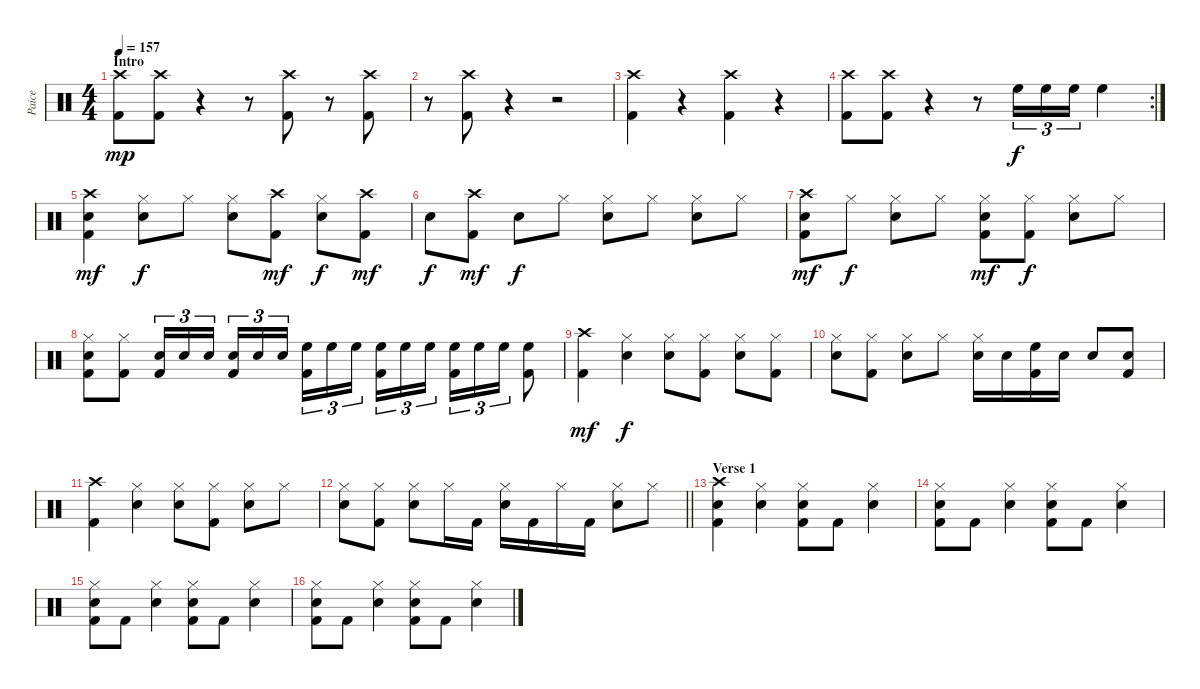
\track ("Paice" "Paice") {instrument percussion}
\staff {score}
\articulation defaults
\ts (4 4)
\section ("" "Intro")
\tempo 157
\clef neutral
\ks c
("Crash high (hit)" "Kick (hit) 2").8{dy mp} ("Crash high (hit)" "Kick (hit) 2").8 r.4 r.8 ("Crash high (hit)" "Kick (hit) 2").8 r.8 ("Crash high (hit)" "Kick (hit) 2").8 |
r.8 ("Crash high (hit)" "Kick (hit) 2").8 r.4 r.2 |
("Crash high (hit)" "Kick (hit) 2").4 r.4 ("Crash high (hit)" "Kick (hit) 2").4 r.4 |
\rc 2
("Crash high (hit)" "Kick (hit) 2").8 ("Crash high (hit)" "Kick (hit) 2").8 r.4 r.8 "High Floor Tom (hit)".16{tu (3 2) dy f} "High Floor Tom (hit)".16{tu (3 2)} "High Floor Tom (hit)".16{tu (3 2)} "High Floor Tom (hit)".4 |
("Crash high (hit)" "Snare (hit) 2" "Kick (hit) 2").4{dy mf} ("Hi-Hat (closed)" "Snare (hit) 2").8{dy f} "Hi-Hat (closed)".8 ("Hi-Hat (closed)" "Snare (hit) 2").8 ("Crash high (hit)" "Kick (hit) 2").8{dy mf} ("Hi-Hat (closed)" "Snare (hit) 2").8{dy f} ("Crash high (hit)" "Kick (hit) 2").8{dy mf} |
"Snare (hit) 2".8{dy f} ("Crash high (hit)" "Kick (hit) 2").8{dy mf} "Snare (hit) 2".8{dy f} "Hi-Hat (closed)".8 ("Hi-Hat (closed)" "Snare (hit) 2").8 "Hi-Hat (closed)".8 ("Hi-Hat (closed)" "Snare (hit) 2").8 "Hi-Hat (closed)".8 |
("Crash high (hit)" "Snare (hit) 2" "Kick (hit) 2").8{dy mf} "Hi-Hat (closed)".8{dy f} ("Hi-Hat (closed)" "Snare (hit) 2").8 "Hi-Hat (closed)".8 ("Hi-Hat (closed)" "Snare (hit) 2" "Kick (hit) 2").8{dy mf} ("Hi-Hat (closed)" "Kick (hit) 2").8{dy f} ("Hi-Hat (closed)" "Snare (hit) 2").8 "Hi-Hat (closed)".8 |
("Hi-Hat (closed)" "Snare (hit) 2" "Kick (hit) 2").8 ("Hi-Hat (closed)" "Kick (hit) 2").8 ("Snare (hit) 2" "Kick (hit) 2").16{tu (3 2)} "Snare (hit) 2".16{tu (3 2)} "Snare (hit) 2".16{tu (3 2)} ("Snare (hit) 2" "Kick (hit) 2").16{tu (3 2)} "Snare (hit) 2".16{tu (3 2)} "Snare (hit) 2".16{tu (3 2)} ("High Floor Tom (hit)" "Kick (hit) 2").16{tu (3 2)} "High Floor Tom (hit)".16{tu (3 2)} "High Floor Tom (hit)".16{tu (3 2)} ("High Floor Tom (hit)" "Kick (hit) 2").16{tu (3 2)} "High Floor Tom (hit)".16{tu (3 2)} "High Floor Tom (hit)".16{tu (3 2)} ("High Floor Tom (hit)" "Kick (hit) 2").16{tu (3 2)} "High Floor Tom (hit)".16{tu (3 2)} "High Floor Tom (hit)".16{tu (3 2)} ("High Floor Tom (hit)" "Kick (hit) 2").8 |
("Crash high (hit)" "Kick (hit) 2").4{dy mf} ("Hi-Hat (closed)" "Snare (hit) 2").4{dy f} ("Hi-Hat (closed)" "Snare (hit) 2").8 ("Hi-Hat (closed)" "Kick (hit) 2").8 ("Hi-Hat (closed)" "Snare (hit) 2").8 ("Hi-Hat (closed)" "Kick (hit) 2").8 |
("Hi-Hat (closed)" "Snare (hit) 2").8 ("Hi-Hat (closed)" "Kick (hit) 2").8 ("Hi-Hat (closed)" "Snare (hit) 2").8 "Hi-Hat (closed)".8 ("Hi-Hat (closed)" "Snare (hit) 2").16 "Snare (hit) 2".16 ("High Floor Tom (hit)" "Kick (hit) 2").16 "Snare (hit) 2".16 "Snare (hit) 2".8 ("Snare (hit) 2" "Kick (hit) 2").8 |
("Crash high (hit)" "Kick (hit) 2").4 ("Hi-Hat (closed)" "Snare (hit) 2").4 ("Hi-Hat (closed)" "Snare (hit) 2").8 ("Hi-Hat (closed)" "Kick (hit) 2").8 ("Hi-Hat (closed)" "Snare (hit) 2").8 "Hi-Hat (closed)".8 |
\barLineRight lightlight
("Hi-Hat (closed)" "Snare (hit) 2").8 ("Hi-Hat (closed)" "Kick (hit) 2").8 ("Hi-Hat (closed)" "Snare (hit) 2").8 "Hi-Hat (closed)".16 "Kick (hit) 2".16 ("Hi-Hat (closed)" "Snare (hit) 2").16 "Kick (hit) 2".16 "Hi-Hat (closed)".16 "Kick (hit) 2".16 ("Hi-Hat (closed)" "Snare (hit) 2").8 "Hi-Hat (closed)".8 |
\section ("" "Verse 1")
("Crash high (hit)" "Snare (hit) 2" "Kick (hit) 2").4 ("Hi-Hat (closed)" "Snare (hit) 2").4 ("Hi-Hat (closed)" "Snare (hit) 2" "Kick (hit) 2").8 "Kick (hit) 2".8 ("Hi-Hat (closed)" "Snare (hit) 2").4 |
("Hi-Hat (closed)" "Snare (hit) 2" "Kick (hit) 2").8 "Kick (hit) 2".8 ("Hi-Hat (closed)" "Snare (hit) 2").4 ("Hi-Hat (closed)" "Snare (hit) 2" "Kick (hit) 2").8 "Kick (hit) 2".8 ("Hi-Hat (closed)" "Snare (hit) 2").4 |
("Hi-Hat (closed)" "Snare (hit) 2" "Kick (hit) 2").8 "Kick (hit) 2".8 ("Hi-Hat (closed)" "Snare (hit) 2").4 ("Hi-Hat (closed)" "Snare (hit) 2" "Kick (hit) 2").8 "Kick (hit) 2".8 ("Hi-Hat (closed)" "Snare (hit) 2").4 |
("Hi-Hat (closed)" "Snare (hit) 2" "Kick (hit) 2").8 "Kick (hit) 2".8 ("Hi-Hat (closed)" "Snare (hit) 2").4 ("Hi-Hat (closed)" "Snare (hit) 2" "Kick (hit) 2").8 "Kick (hit) 2".8 ("Hi-Hat (closed)" "Snare (hit) 2").4
